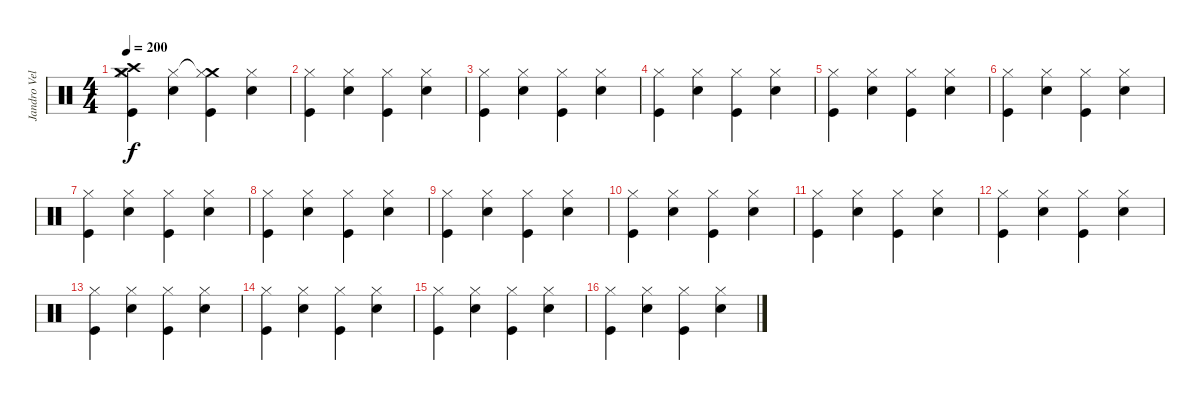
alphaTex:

\track ("Jandro Velázquez" "Jandro Vel") {instrument percussion}
\staff {score}
\articulation defaults
\ts (4 4)
\tempo 200
\clef neutral
\ks c
("Crash high (hit)" "Crash medium (hit)" "Hi-Hat (closed)" "Kick (hit)").4{dy f} ("Hi-Hat (closed)" "Snare (hit) 2").4 ("Crash medium (hit)"{t} "Hi-Hat (closed)" "Kick (hit)").4 ("Hi-Hat (closed)" "Snare (hit) 2").4 |
("Hi-Hat (closed)" "Kick (hit)").4 ("Hi-Hat (closed)" "Snare (hit) 2").4 ("Hi-Hat (closed)" "Kick (hit)").4 ("Hi-Hat (closed)" "Snare (hit) 2").4 |
("Hi-Hat (closed)" "Kick (hit)").4 ("Hi-Hat (closed)" "Snare (hit) 2").4 ("Hi-Hat (closed)" "Kick (hit)").4 ("Hi-Hat (closed)" "Snare (hit) 2").4 |
("Hi-Hat (closed)" "Kick (hit)").4 ("Hi-Hat (closed)" "Snare (hit) 2").4 ("Hi-Hat (closed)" "Kick (hit)").4 ("Hi-Hat (closed)" "Snare (hit) 2").4 |
("Hi-Hat (closed)" "Kick (hit)").4 ("Hi-Hat (closed)" "Snare (hit) 2").4 ("Hi-Hat (closed)" "Kick (hit)").4 ("Hi-Hat (closed)" "Snare (hit) 2").4 |
("Hi-Hat (closed)" "Kick (hit)").4 ("Hi-Hat (closed)" "Snare (hit) 2").4 ("Hi-Hat (closed)" "Kick (hit)").4 ("Hi-Hat (closed)" "Snare (hit) 2").4 |
("Hi-Hat (closed)" "Kick (hit)").4 ("Hi-Hat (closed)" "Snare (hit) 2").4 ("Hi-Hat (closed)" "Kick (hit)").4 ("Hi-Hat (closed)" "Snare (hit) 2").4 |
("Hi-Hat (closed)" "Kick (hit)").4 ("Hi-Hat (closed)" "Snare (hit) 2").4 ("Hi-Hat (closed)" "Kick (hit)").4 ("Hi-Hat (closed)" "Snare (hit) 2").4 |
("Hi-Hat (closed)" "Kick (hit)").4 ("Hi-Hat (closed)" "Snare (hit) 2").4 ("Hi-Hat (closed)" "Kick (hit)").4 ("Hi-Hat (closed)" "Snare (hit) 2").4 |
("Hi-Hat (closed)" "Kick (hit)").4 ("Hi-Hat (closed)" "Snare (hit) 2").4 ("Hi-Hat (closed)" "Kick (hit)").4 ("Hi-Hat (closed)" "Snare (hit) 2").4 |
("Hi-Hat (closed)" "Kick (hit)").4 ("Hi-Hat (closed)" "Snare (hit) 2").4 ("Hi-Hat (closed)" "Kick (hit)").4 ("Hi-Hat (closed)" "Snare (hit) 2").4 |
("Hi-Hat (closed)" "Kick (hit)").4 ("Hi-Hat (closed)" "Snare (hit) 2").4 ("Hi-Hat (closed)" "Kick (hit)").4 ("Hi-Hat (closed)" "Snare (hit) 2").4 |
("Hi-Hat (closed)" "Kick (hit)").4 ("Hi-Hat (closed)" "Snare (hit) 2").4 ("Hi-Hat (closed)" "Kick (hit)").4 ("Hi-Hat (closed)" "Snare (hit) 2").4 |
("Hi-Hat (closed)" "Kick (hit)").4 ("Hi-Hat (closed)" "Snare (hit) 2").4 ("Hi-Hat (closed)" "Kick (hit)").4 ("Hi-Hat (closed)" "Snare (hit) 2").4 |
("Hi-Hat (closed)" "Kick (hit)").4 ("Hi-Hat (closed)" "Snare (hit) 2").4 ("Hi-Hat (closed)" "Kick (hit)").4 ("Hi-Hat (closed)" "Snare (hit) 2").4 |
("Hi-Hat (closed)" "Kick (hit)").4 ("Hi-Hat (closed)" "Snare (hit) 2").4 ("Hi-Hat (closed)" "Kick (hit)").4 ("Hi-Hat (closed)" "Snare (hit) 2").4
